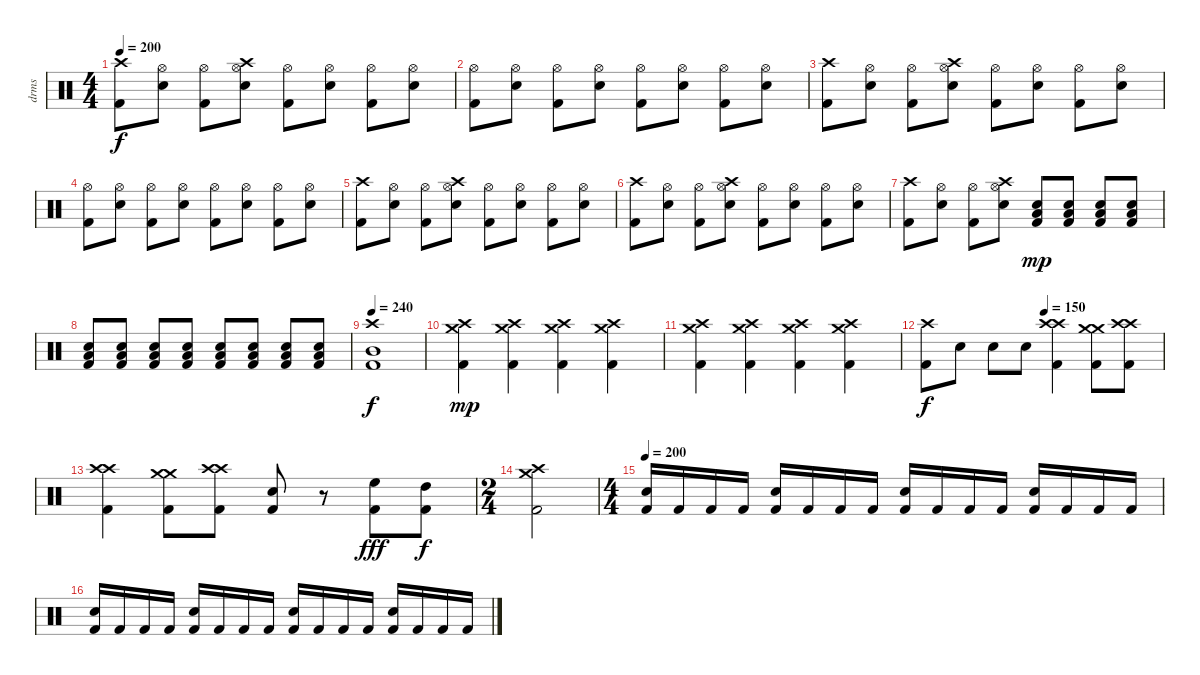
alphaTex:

\track ("drms" "drms") {instrument percussion}
\staff {score}
\articulation defaults
\ts (4 4)
\tempo 200
\clef neutral
\ks c
("Crash high (hit)" "Kick (hit) 2").8{dy f} ("Hi-Hat (open)" "Snare (hit) 2").8 ("Hi-Hat (open)" "Kick (hit) 2").8 ("Crash high (hit)" "Hi-Hat (open)" "Snare (hit) 2").8 ("Hi-Hat (open)" "Kick (hit) 2").8 ("Hi-Hat (open)" "Snare (hit) 2").8 ("Hi-Hat (open)" "Kick (hit) 2").8 ("Hi-Hat (open)" "Snare (hit) 2").8 |
("Hi-Hat (open)" "Kick (hit) 2").8 ("Hi-Hat (open)" "Snare (hit) 2").8 ("Hi-Hat (open)" "Kick (hit) 2").8 ("Hi-Hat (open)" "Snare (hit) 2").8 ("Hi-Hat (open)" "Kick (hit) 2").8 ("Hi-Hat (open)" "Snare (hit) 2").8 ("Hi-Hat (open)" "Kick (hit) 2").8 ("Hi-Hat (open)" "Snare (hit) 2").8 |
("Crash high (hit)" "Kick (hit) 2").8 ("Hi-Hat (open)" "Snare (hit) 2").8 ("Hi-Hat (open)" "Kick (hit) 2").8 ("Crash high (hit)" "Hi-Hat (open)" "Snare (hit) 2").8 ("Hi-Hat (open)" "Kick (hit) 2").8 ("Hi-Hat (open)" "Snare (hit) 2").8 ("Hi-Hat (open)" "Kick (hit) 2").8 ("Hi-Hat (open)" "Snare (hit) 2").8 |
("Hi-Hat (open)" "Kick (hit) 2").8 ("Hi-Hat (open)" "Snare (hit) 2").8 ("Hi-Hat (open)" "Kick (hit) 2").8 ("Hi-Hat (open)" "Snare (hit) 2").8 ("Hi-Hat (open)" "Kick (hit) 2").8 ("Hi-Hat (open)" "Snare (hit) 2").8 ("Hi-Hat (open)" "Kick (hit) 2").8 ("Hi-Hat (open)" "Snare (hit) 2").8 |
("Crash high (hit)" "Kick (hit) 2").8 ("Hi-Hat (open)" "Snare (hit) 2").8 ("Hi-Hat (open)" "Kick (hit) 2").8 ("Crash high (hit)" "Hi-Hat (open)" "Snare (hit) 2").8 ("Hi-Hat (open)" "Kick (hit) 2").8 ("Hi-Hat (open)" "Snare (hit) 2").8 ("Hi-Hat (open)" "Kick (hit) 2").8 ("Hi-Hat (open)" "Snare (hit) 2").8 |
("Crash high (hit)" "Kick (hit) 2").8 ("Hi-Hat (open)" "Snare (hit) 2").8 ("Hi-Hat (open)" "Kick (hit) 2").8 ("Crash high (hit)" "Hi-Hat (open)" "Snare (hit) 2").8 ("Hi-Hat (open)" "Kick (hit) 2").8 ("Hi-Hat (open)" "Snare (hit) 2").8 ("Hi-Hat (open)" "Kick (hit) 2").8 ("Hi-Hat (open)" "Snare (hit) 2").8 |
("Crash high (hit)" "Kick (hit) 2").8 ("Hi-Hat (open)" "Snare (hit) 2").8 ("Hi-Hat (open)" "Kick (hit) 2").8 ("Crash high (hit)" "Hi-Hat (open)" "Snare (hit) 2").8 ("Low Floor Tom (hit)" "Snare (hit) 2" "Kick (hit) 2").8{dy mp} ("Low Floor Tom (hit)" "Snare (hit) 2" "Kick (hit) 2").8 ("Low Floor Tom (hit)" "Snare (hit) 2" "Kick (hit) 2").8 ("Low Floor Tom (hit)" "Snare (hit) 2" "Kick (hit) 2").8 |
("Low Floor Tom (hit)" "Snare (hit) 2" "Kick (hit) 2").8 ("Low Floor Tom (hit)" "Snare (hit) 2" "Kick (hit) 2").8 ("Low Floor Tom (hit)" "Snare (hit) 2" "Kick (hit) 2").8 ("Low Floor Tom (hit)" "Snare (hit) 2" "Kick (hit) 2").8 ("Low Floor Tom (hit)" "Snare (hit) 2" "Kick (hit) 2").8 ("Low Floor Tom (hit)" "Snare (hit) 2" "Kick (hit) 2").8 ("Low Floor Tom (hit)" "Snare (hit) 2" "Kick (hit) 2").8 ("Low Floor Tom (hit)" "Snare (hit) 2" "Kick (hit) 2").8 |
\tempo 240
("Crash high (hit)" "Mid Tom (hit)" "Kick (hit) 2").1{dy f} |
("Crash high (hit)" "Crash medium (hit)" "Kick (hit) 2").4{dy mp} ("Crash high (hit)" "Crash medium (hit)" "Kick (hit) 2").4 ("Crash high (hit)" "Crash medium (hit)" "Kick (hit) 2").4 ("Crash high (hit)" "Crash medium (hit)" "Kick (hit) 2").4 |
("Crash high (hit)" "Crash medium (hit)" "Kick (hit) 2").4 ("Crash high (hit)" "Crash medium (hit)" "Kick (hit) 2").4 ("Crash high (hit)" "Crash medium (hit)" "Kick (hit) 2").4 ("Crash high (hit)" "Crash medium (hit)" "Kick (hit) 2").4 |
\tempo (150 0.5)
("Crash high (hit)" "Kick (hit) 2").8{dy f} "Snare (hit) 2".8 "Snare (hit) 2".8 "Snare (hit) 2".8 ("Crash high (hit)" "Crash high (hit)" "Kick (hit) 2").4 ("Crash medium (hit)" "Crash medium (hit)" "Kick (hit) 2").8 ("Crash high (hit)" "Crash high (hit)" "Kick (hit) 2").8 |
("Crash high (hit)" "Crash high (hit)" "Kick (hit) 2").4 ("Crash medium (hit)" "Crash medium (hit)" "Kick (hit) 2").8 ("Crash high (hit)" "Crash high (hit)" "Kick (hit) 2").8 ("Snare (hit) 2" "Kick (hit) 2").8 r.8 ("High Floor Tom (hit)" "Kick (hit) 2").8{dy fff} ("High Tom (hit)" "Kick (hit) 2").8{dy f} |
\ts (2 4)
("Crash high (hit)" "Crash medium (hit)" "Kick (hit) 2").2 |
\ts (4 4)
\tempo 200
("Snare (hit) 2" "Kick (hit) 2").16 "Kick (hit) 2".16 "Kick (hit) 2".16 "Kick (hit) 2".16 ("Snare (hit) 2" "Kick (hit) 2").16 "Kick (hit) 2".16 "Kick (hit) 2".16 "Kick (hit) 2".16 ("Snare (hit) 2" "Kick (hit) 2").16 "Kick (hit) 2".16 "Kick (hit) 2".16 "Kick (hit) 2".16 ("Snare (hit) 2" "Kick (hit) 2").16 "Kick (hit) 2".16 "Kick (hit) 2".16 "Kick (hit) 2".16 |
("Snare (hit) 2" "Kick (hit) 2").16 "Kick (hit) 2".16 "Kick (hit) 2".16 "Kick (hit) 2".16 ("Snare (hit) 2" "Kick (hit) 2").16 "Kick (hit) 2".16 "Kick (hit) 2".16 "Kick (hit) 2".16 ("Snare (hit) 2" "Kick (hit) 2").16 "Kick (hit) 2".16 "Kick (hit) 2".16 "Kick (hit) 2".16 ("Snare (hit) 2" "Kick (hit) 2").16 "Kick (hit) 2".16 "Kick (hit) 2".16 "Kick (hit) 2".16
